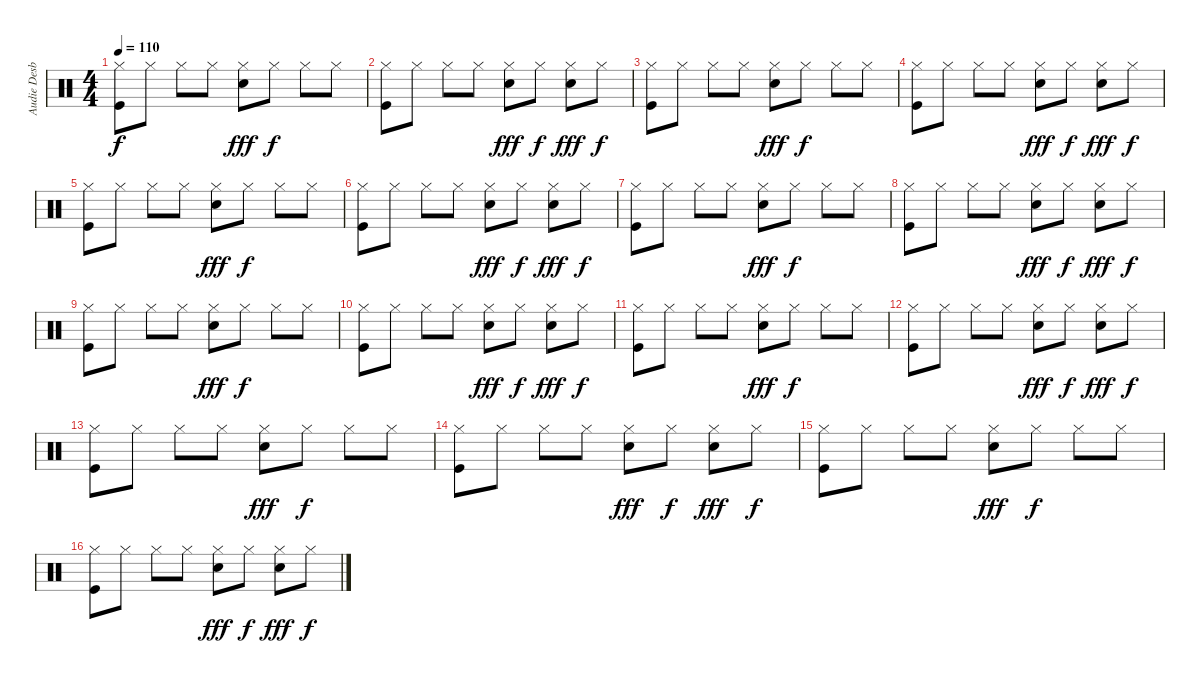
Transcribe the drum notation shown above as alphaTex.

\track ("Audie Desbrow" "Audie Desb") {instrument percussion}
\staff {score}
\articulation defaults
\ts (4 4)
\tempo 110
\clef neutral
\ks c
("Hi-Hat (closed)" "Kick (hit)").8{dy f} "Hi-Hat (closed)".8 "Hi-Hat (closed)".8 "Hi-Hat (closed)".8 ("Hi-Hat (closed)" "Snare (hit) 2").8{dy fff} "Hi-Hat (closed)".8{dy f} "Hi-Hat (closed)".8 "Hi-Hat (closed)".8 |
("Hi-Hat (closed)" "Kick (hit)").8 "Hi-Hat (closed)".8 "Hi-Hat (closed)".8 "Hi-Hat (closed)".8 ("Hi-Hat (closed)" "Snare (hit) 2").8{dy fff} "Hi-Hat (closed)".8{dy f} ("Hi-Hat (closed)" "Snare (hit) 2").8{dy fff} "Hi-Hat (closed)".8{dy f} |
("Hi-Hat (closed)" "Kick (hit)").8 "Hi-Hat (closed)".8 "Hi-Hat (closed)".8 "Hi-Hat (closed)".8 ("Hi-Hat (closed)" "Snare (hit) 2").8{dy fff} "Hi-Hat (closed)".8{dy f} "Hi-Hat (closed)".8 "Hi-Hat (closed)".8 |
("Hi-Hat (closed)" "Kick (hit)").8 "Hi-Hat (closed)".8 "Hi-Hat (closed)".8 "Hi-Hat (closed)".8 ("Hi-Hat (closed)" "Snare (hit) 2").8{dy fff} "Hi-Hat (closed)".8{dy f} ("Hi-Hat (closed)" "Snare (hit) 2").8{dy fff} "Hi-Hat (closed)".8{dy f} |
("Hi-Hat (closed)" "Kick (hit)").8 "Hi-Hat (closed)".8 "Hi-Hat (closed)".8 "Hi-Hat (closed)".8 ("Hi-Hat (closed)" "Snare (hit) 2").8{dy fff} "Hi-Hat (closed)".8{dy f} "Hi-Hat (closed)".8 "Hi-Hat (closed)".8 |
("Hi-Hat (closed)" "Kick (hit)").8 "Hi-Hat (closed)".8 "Hi-Hat (closed)".8 "Hi-Hat (closed)".8 ("Hi-Hat (closed)" "Snare (hit) 2").8{dy fff} "Hi-Hat (closed)".8{dy f} ("Hi-Hat (closed)" "Snare (hit) 2").8{dy fff} "Hi-Hat (closed)".8{dy f} |
("Hi-Hat (closed)" "Kick (hit)").8 "Hi-Hat (closed)".8 "Hi-Hat (closed)".8 "Hi-Hat (closed)".8 ("Hi-Hat (closed)" "Snare (hit) 2").8{dy fff} "Hi-Hat (closed)".8{dy f} "Hi-Hat (closed)".8 "Hi-Hat (closed)".8 |
("Hi-Hat (closed)" "Kick (hit)").8 "Hi-Hat (closed)".8 "Hi-Hat (closed)".8 "Hi-Hat (closed)".8 ("Hi-Hat (closed)" "Snare (hit) 2").8{dy fff} "Hi-Hat (closed)".8{dy f} ("Hi-Hat (closed)" "Snare (hit) 2").8{dy fff} "Hi-Hat (closed)".8{dy f} |
("Hi-Hat (closed)" "Kick (hit)").8 "Hi-Hat (closed)".8 "Hi-Hat (closed)".8 "Hi-Hat (closed)".8 ("Hi-Hat (closed)" "Snare (hit) 2").8{dy fff} "Hi-Hat (closed)".8{dy f} "Hi-Hat (closed)".8 "Hi-Hat (closed)".8 |
("Hi-Hat (closed)" "Kick (hit)").8 "Hi-Hat (closed)".8 "Hi-Hat (closed)".8 "Hi-Hat (closed)".8 ("Hi-Hat (closed)" "Snare (hit) 2").8{dy fff} "Hi-Hat (closed)".8{dy f} ("Hi-Hat (closed)" "Snare (hit) 2").8{dy fff} "Hi-Hat (closed)".8{dy f} |
("Hi-Hat (closed)" "Kick (hit)").8 "Hi-Hat (closed)".8 "Hi-Hat (closed)".8 "Hi-Hat (closed)".8 ("Hi-Hat (closed)" "Snare (hit) 2").8{dy fff} "Hi-Hat (closed)".8{dy f} "Hi-Hat (closed)".8 "Hi-Hat (closed)".8 |
("Hi-Hat (closed)" "Kick (hit)").8 "Hi-Hat (closed)".8 "Hi-Hat (closed)".8 "Hi-Hat (closed)".8 ("Hi-Hat (closed)" "Snare (hit) 2").8{dy fff} "Hi-Hat (closed)".8{dy f} ("Hi-Hat (closed)" "Snare (hit) 2").8{dy fff} "Hi-Hat (closed)".8{dy f} |
("Hi-Hat (closed)" "Kick (hit)").8 "Hi-Hat (closed)".8 "Hi-Hat (closed)".8 "Hi-Hat (closed)".8 ("Hi-Hat (closed)" "Snare (hit) 2").8{dy fff} "Hi-Hat (closed)".8{dy f} "Hi-Hat (closed)".8 "Hi-Hat (closed)".8 |
("Hi-Hat (closed)" "Kick (hit)").8 "Hi-Hat (closed)".8 "Hi-Hat (closed)".8 "Hi-Hat (closed)".8 ("Hi-Hat (closed)" "Snare (hit) 2").8{dy fff} "Hi-Hat (closed)".8{dy f} ("Hi-Hat (closed)" "Snare (hit) 2").8{dy fff} "Hi-Hat (closed)".8{dy f} |
("Hi-Hat (closed)" "Kick (hit)").8 "Hi-Hat (closed)".8 "Hi-Hat (closed)".8 "Hi-Hat (closed)".8 ("Hi-Hat (closed)" "Snare (hit) 2").8{dy fff} "Hi-Hat (closed)".8{dy f} "Hi-Hat (closed)".8 "Hi-Hat (closed)".8 |
("Hi-Hat (closed)" "Kick (hit)").8 "Hi-Hat (closed)".8 "Hi-Hat (closed)".8 "Hi-Hat (closed)".8 ("Hi-Hat (closed)" "Snare (hit) 2").8{dy fff} "Hi-Hat (closed)".8{dy f} ("Hi-Hat (closed)" "Snare (hit) 2").8{dy fff} "Hi-Hat (closed)".8{dy f}
